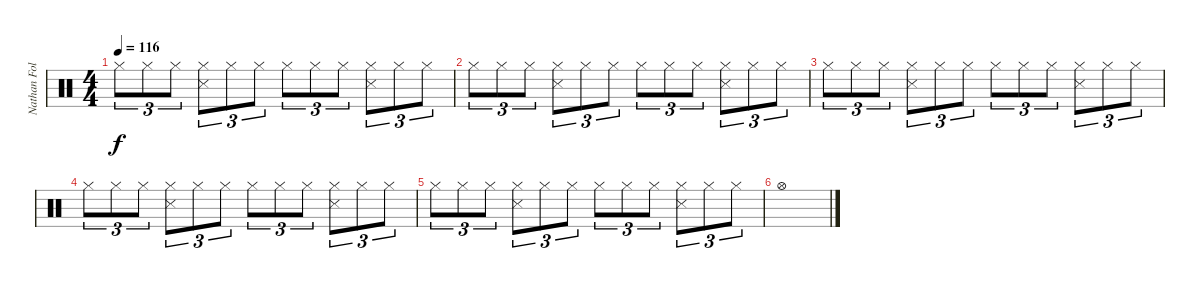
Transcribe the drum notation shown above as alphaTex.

\track ("Nathan Followill" "Nathan Fol") {instrument percussion}
\staff {score}
\articulation defaults
\ts (4 4)
\tempo 116
\clef neutral
\ks c "Hi-Hat (closed)".8{tu (3 2) dy f} "Hi-Hat (closed)".8{tu (3 2)} "Hi-Hat (closed)".8{tu (3 2)}
("Hi-Hat (closed)" "Snare (side stick) 3").8{tu (3 2)} "Hi-Hat (closed)".8{tu (3 2)} "Hi-Hat (closed)".8{tu (3 2)} "Hi-Hat (closed)".8{tu (3 2)} "Hi-Hat (closed)".8{tu (3 2)} "Hi-Hat (closed)".8{tu (3 2)} ("Hi-Hat (closed)" "Snare (side stick) 3").8{tu (3 2)} "Hi-Hat (closed)".8{tu (3 2)} "Hi-Hat (closed)".8{tu (3 2)} |
"Hi-Hat (closed)".8{tu (3 2)} "Hi-Hat (closed)".8{tu (3 2)} "Hi-Hat (closed)".8{tu (3 2)} ("Hi-Hat (closed)" "Snare (side stick) 3").8{tu (3 2)} "Hi-Hat (closed)".8{tu (3 2)} "Hi-Hat (closed)".8{tu (3 2)} "Hi-Hat (closed)".8{tu (3 2)} "Hi-Hat (closed)".8{tu (3 2)} "Hi-Hat (closed)".8{tu (3 2)} ("Hi-Hat (closed)" "Snare (side stick) 3").8{tu (3 2)} "Hi-Hat (closed)".8{tu (3 2)} "Hi-Hat (closed)".8{tu (3 2)} |
"Hi-Hat (closed)".8{tu (3 2)} "Hi-Hat (closed)".8{tu (3 2)} "Hi-Hat (closed)".8{tu (3 2)} ("Hi-Hat (closed)" "Snare (side stick) 3").8{tu (3 2)} "Hi-Hat (closed)".8{tu (3 2)} "Hi-Hat (closed)".8{tu (3 2)} "Hi-Hat (closed)".8{tu (3 2)} "Hi-Hat (closed)".8{tu (3 2)} "Hi-Hat (closed)".8{tu (3 2)} ("Hi-Hat (closed)" "Snare (side stick) 3").8{tu (3 2)} "Hi-Hat (closed)".8{tu (3 2)} "Hi-Hat (closed)".8{tu (3 2)} |
"Hi-Hat (closed)".8{tu (3 2)} "Hi-Hat (closed)".8{tu (3 2)} "Hi-Hat (closed)".8{tu (3 2)} ("Hi-Hat (closed)" "Snare (side stick) 3").8{tu (3 2)} "Hi-Hat (closed)".8{tu (3 2)} "Hi-Hat (closed)".8{tu (3 2)} "Hi-Hat (closed)".8{tu (3 2)} "Hi-Hat (closed)".8{tu (3 2)} "Hi-Hat (closed)".8{tu (3 2)} ("Hi-Hat (closed)" "Snare (side stick) 3").8{tu (3 2)} "Hi-Hat (closed)".8{tu (3 2)} "Hi-Hat (closed)".8{tu (3 2)} |
"Hi-Hat (closed)".8{tu (3 2)} "Hi-Hat (closed)".8{tu (3 2)} "Hi-Hat (closed)".8{tu (3 2)} ("Hi-Hat (closed)" "Snare (side stick) 3").8{tu (3 2)} "Hi-Hat (closed)".8{tu (3 2)} "Hi-Hat (closed)".8{tu (3 2)} "Hi-Hat (closed)".8{tu (3 2)} "Hi-Hat (closed)".8{tu (3 2)} "Hi-Hat (closed)".8{tu (3 2)} ("Hi-Hat (closed)" "Snare (side stick) 3").8{tu (3 2)} "Hi-Hat (closed)".8{tu (3 2)} "Hi-Hat (closed)".8{tu (3 2)} |
"Hi-Hat (open)".1
